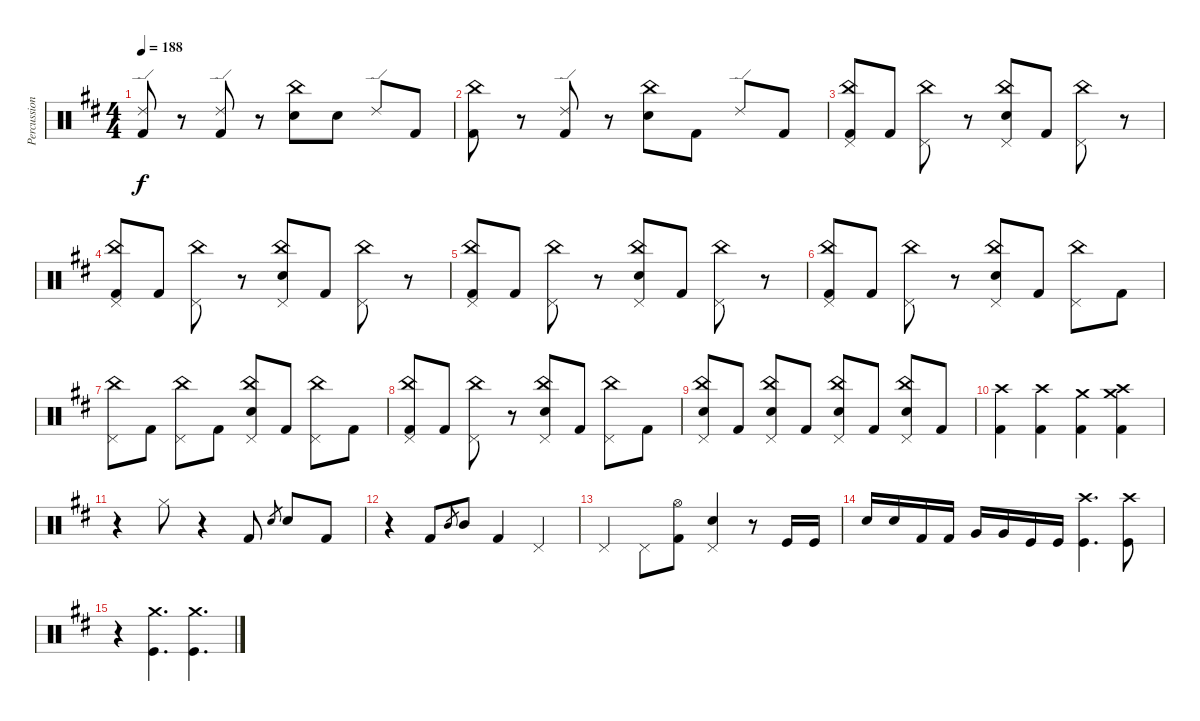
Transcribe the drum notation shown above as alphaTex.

\track ("Percussion" "Percussion") {instrument percussion}
\staff {score}
\articulation defaults
\ts (4 4)
\tempo 188
\clef neutral
\ks bminor
("Kick (hit) 2" "Ride (edge) 2").8{dy f} r.8 ("Kick (hit) 2" "Ride (edge) 2").8 r.8 ("Electric Snare (hit)" "China (hit)").8 "Electric Snare (hit)".8 "Ride (edge) 2".8 "Kick (hit) 2".8 |
("Kick (hit) 2" "China (hit)").8 r.8 ("Kick (hit) 2" "Ride (edge) 2").8 r.8 ("Electric Snare (hit)" "China (hit)").8 "Kick (hit) 2".8 "Ride (edge) 2".8 "Kick (hit) 2".8 |
("Kick (hit) 2" "China (hit)" "Pedal Hi-Hat (hit)").8{volume 16} "Kick (hit) 2".8 ("Pedal Hi-Hat (hit)" "China (hit)").8 r.8 ("China (hit)" "Electric Snare (hit)" "Pedal Hi-Hat (hit)").8 "Kick (hit) 2".8 ("Pedal Hi-Hat (hit)" "China (hit)").8 r.8 |
("Kick (hit) 2" "China (hit)" "Pedal Hi-Hat (hit)").8 "Kick (hit) 2".8 ("Pedal Hi-Hat (hit)" "China (hit)").8 r.8 ("China (hit)" "Electric Snare (hit)" "Pedal Hi-Hat (hit)").8 "Kick (hit) 2".8 ("Pedal Hi-Hat (hit)" "China (hit)").8 r.8 |
("Kick (hit) 2" "China (hit)" "Pedal Hi-Hat (hit)").8 "Kick (hit) 2".8 ("Pedal Hi-Hat (hit)" "China (hit)").8 r.8 ("China (hit)" "Electric Snare (hit)" "Pedal Hi-Hat (hit)").8 "Kick (hit) 2".8 ("Pedal Hi-Hat (hit)" "China (hit)").8 r.8 |
("Kick (hit) 2" "China (hit)" "Pedal Hi-Hat (hit)").8 "Kick (hit) 2".8 ("Pedal Hi-Hat (hit)" "China (hit)").8 r.8 ("China (hit)" "Electric Snare (hit)" "Pedal Hi-Hat (hit)").8 "Kick (hit) 2".8 ("Pedal Hi-Hat (hit)" "China (hit)").8 "Kick (hit) 2".8 |
("China (hit)" "Pedal Hi-Hat (hit)").8 "Kick (hit) 2".8 ("Pedal Hi-Hat (hit)" "China (hit)").8 "Kick (hit) 2".8 ("China (hit)" "Electric Snare (hit)" "Pedal Hi-Hat (hit)").8 "Kick (hit) 2".8 ("Pedal Hi-Hat (hit)" "China (hit)").8 "Kick (hit) 2".8 |
("Kick (hit) 2" "China (hit)" "Pedal Hi-Hat (hit)").8 "Kick (hit) 2".8 ("Pedal Hi-Hat (hit)" "China (hit)").8 r.8 ("China (hit)" "Electric Snare (hit)" "Pedal Hi-Hat (hit)").8 "Kick (hit) 2".8 ("Pedal Hi-Hat (hit)" "China (hit)").8 "Kick (hit) 2".8 |
("Electric Snare (hit)" "China (hit)" "Pedal Hi-Hat (hit)").8 "Kick (hit) 2".8 ("Pedal Hi-Hat (hit)" "China (hit)" "Electric Snare (hit)").8 "Kick (hit) 2".8 ("China (hit)" "Electric Snare (hit)" "Pedal Hi-Hat (hit)").8 "Kick (hit) 2".8 ("Pedal Hi-Hat (hit)" "China (hit)" "Electric Snare (hit)").8 "Kick (hit) 2".8 |
("Kick (hit) 2" "Crash high (hit)").4 ("Kick (hit) 2" "Crash high (hit)").4 ("Kick (hit) 2" "Crash medium (hit)").4 ("Kick (hit) 2" "Crash medium (hit)" "Crash high (hit)").4 |
r.4 "Hi-Hat (closed)".8 r.4 "Kick (hit) 2".8 "Electric Snare (hit)".8{gr} "Electric Snare (hit)".8 "Kick (hit) 2".8 |
r.4 "Kick (hit) 2".8 "Mid Tom (hit)".8{gr} "Mid Tom (hit)".8 "Kick (hit) 2".4 "Pedal Hi-Hat (hit)".4 |
"Pedal Hi-Hat (hit)".4 "Pedal Hi-Hat (hit)".8 ("Kick (hit) 2" "Hi-Hat (open)").8 ("Electric Snare (hit)" "Pedal Hi-Hat (hit)").4 r.8 "Kick (hit)".16 "Kick (hit)".16 |
"Electric Snare (hit)".16 "Electric Snare (hit)".16 "Kick (hit) 2".16 "Kick (hit) 2".16 "Very Low Tom (hit)".16 "Very Low Tom (hit)".16 "Kick (hit)".16 "Kick (hit)".16 ("Crash high (hit)" "Kick (hit)").4{d} ("Crash high (hit)" "Kick (hit)").8 |
r.4 ("Crash medium (hit)" "Kick (hit)").4{d} ("Crash medium (hit)" "Kick (hit)").4{d}
